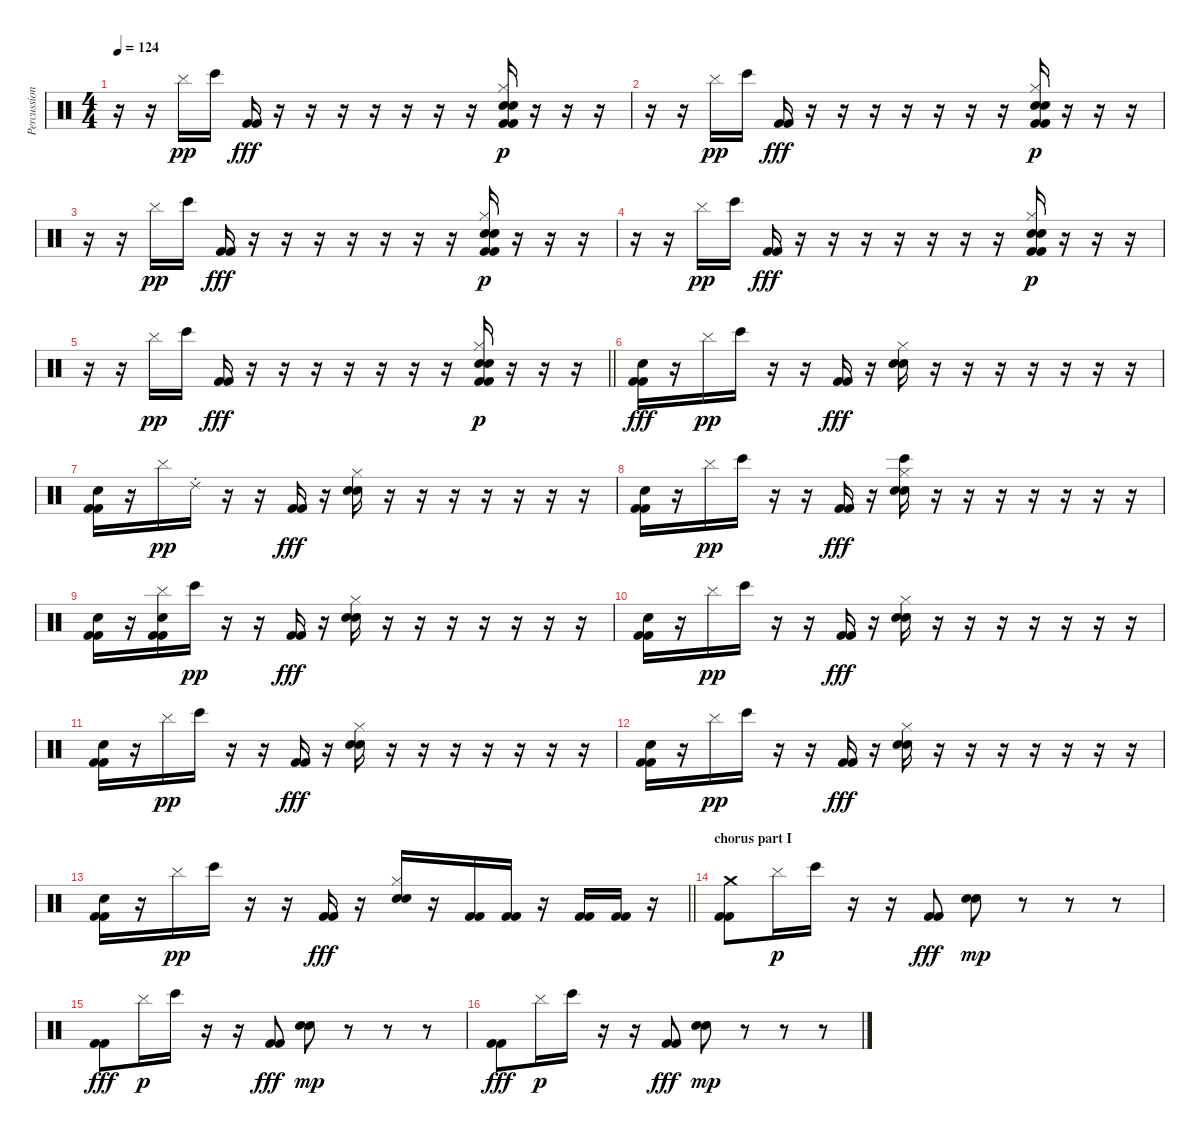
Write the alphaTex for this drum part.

\track ("Percussions" "Percussion") {instrument percussion}
\staff {score}
\articulation defaults
\ts (4 4)
\tempo 124
\clef neutral
\ks c
r.16{dy p} r.16 "Cymbal (hit)".16{dy pp} "Bongo High (hit)".16 ("Kick (hit) 2" "Kick (hit) 2").16{dy fff} r.16 r.16 r.16 r.16 r.16 r.16 r.16 ("Snare (hit) 2" "Hi-Hat (closed)" "Hand Clap (hit)" "Kick (hit) 2" "Kick (hit) 2").16{dy p} r.16 r.16 r.16 |
r.16 r.16 "Cymbal (hit)".16{dy pp} "Bongo High (hit)".16 ("Kick (hit) 2" "Kick (hit) 2").16{dy fff} r.16 r.16 r.16 r.16 r.16 r.16 r.16 ("Snare (hit) 2" "Hi-Hat (closed)" "Hand Clap (hit)" "Kick (hit) 2" "Kick (hit) 2").16{dy p} r.16 r.16 r.16 |
r.16 r.16 "Cymbal (hit)".16{dy pp} "Bongo High (hit)".16 ("Kick (hit) 2" "Kick (hit) 2").16{dy fff} r.16 r.16 r.16 r.16 r.16 r.16 r.16 ("Snare (hit) 2" "Hi-Hat (closed)" "Hand Clap (hit)" "Kick (hit) 2" "Kick (hit) 2").16{dy p} r.16 r.16 r.16 |
r.16 r.16 "Cymbal (hit)".16{dy pp} "Bongo High (hit)".16 ("Kick (hit) 2" "Kick (hit) 2").16{dy fff} r.16 r.16 r.16 r.16 r.16 r.16 r.16 ("Snare (hit) 2" "Hi-Hat (closed)" "Hand Clap (hit)" "Kick (hit) 2" "Kick (hit) 2").16{dy p} r.16 r.16 r.16 |
\barLineRight lightlight
r.16 r.16 "Cymbal (hit)".16{dy pp} "Bongo High (hit)".16 ("Kick (hit) 2" "Kick (hit) 2").16{dy fff} r.16 r.16 r.16 r.16 r.16 r.16 r.16 ("Snare (hit) 2" "Hi-Hat (closed)" "Hand Clap (hit)" "Kick (hit) 2" "Kick (hit) 2").16{dy p} r.16 r.16 r.16 |
\section ("" "")
("Snare (hit) 2" "Kick (hit) 2" "Kick (hit) 2").16{dy fff} r.16 "Cymbal (hit)".16{dy pp} "Bongo High (hit)".16 r.16 r.16 ("Kick (hit) 2" "Kick (hit) 2").16{dy fff} r.16 ("Hi-Hat (closed)" "Snare (hit) 2" "Hand Clap (hit)").16 r.16 r.16 r.16 r.16 r.16 r.16 r.16 |
("Snare (hit) 2" "Kick (hit) 2" "Kick (hit) 2").16 r.16 "Cymbal (hit)".16{dy pp} "Ride (choke) 2".16 r.16 r.16 ("Kick (hit) 2" "Kick (hit) 2").16{dy fff} r.16 ("Hi-Hat (closed)" "Snare (hit) 2" "Hand Clap (hit)").16 r.16 r.16 r.16 r.16 r.16 r.16 r.16 |
("Snare (hit) 2" "Kick (hit) 2" "Kick (hit) 2").16 r.16 "Cymbal (hit)".16{dy pp} "Bongo High (hit)".16 r.16 r.16 ("Kick (hit) 2" "Kick (hit) 2").16{dy fff} r.16 ("Bongo High (hit)" "Hi-Hat (closed)" "Snare (hit) 2" "Hand Clap (hit)").16 r.16 r.16 r.16 r.16 r.16 r.16 r.16 |
("Snare (hit) 2" "Kick (hit) 2" "Kick (hit) 2").16 r.16 ("Snare (hit) 2" "Cymbal (hit)" "Kick (hit) 2" "Kick (hit) 2").16 "Bongo High (hit)".16{dy pp} r.16 r.16 ("Kick (hit) 2" "Kick (hit) 2").16{dy fff} r.16 ("Hi-Hat (closed)" "Snare (hit) 2" "Hand Clap (hit)").16 r.16 r.16 r.16 r.16 r.16 r.16 r.16 |
("Snare (hit) 2" "Kick (hit) 2" "Kick (hit) 2").16 r.16 "Cymbal (hit)".16{dy pp} "Bongo High (hit)".16 r.16 r.16 ("Kick (hit) 2" "Kick (hit) 2").16{dy fff} r.16 ("Hi-Hat (closed)" "Snare (hit) 2" "Hand Clap (hit)").16 r.16 r.16 r.16 r.16 r.16 r.16 r.16 |
("Snare (hit) 2" "Kick (hit) 2" "Kick (hit) 2").16 r.16 "Cymbal (hit)".16{dy pp} "Bongo High (hit)".16 r.16 r.16 ("Kick (hit) 2" "Kick (hit) 2").16{dy fff} r.16 ("Hi-Hat (closed)" "Snare (hit) 2" "Hand Clap (hit)").16 r.16 r.16 r.16 r.16 r.16 r.16 r.16 |
("Snare (hit) 2" "Kick (hit) 2" "Kick (hit) 2").16 r.16 "Cymbal (hit)".16{dy pp} "Bongo High (hit)".16 r.16 r.16 ("Kick (hit) 2" "Kick (hit) 2").16{dy fff} r.16 ("Hi-Hat (closed)" "Snare (hit) 2" "Hand Clap (hit)").16 r.16 r.16 r.16 r.16 r.16 r.16 r.16 |
\barLineRight lightlight
("Snare (hit) 2" "Kick (hit) 2" "Kick (hit) 2").16 r.16 "Cymbal (hit)".16{dy pp} "Bongo High (hit)".16 r.16 r.16 ("Kick (hit) 2" "Kick (hit) 2").16{dy fff} r.16 ("Hi-Hat (closed)" "Snare (hit) 2" "Hand Clap (hit)").16 r.16 ("Kick (hit) 2" "Kick (hit) 2").16 ("Kick (hit) 2" "Kick (hit) 2").16 r.16 ("Kick (hit) 2" "Kick (hit) 2").16 ("Kick (hit) 2" "Kick (hit) 2").16 r.16 |
\section ("" "chorus part I")
("Crash medium (hit)" "Kick (hit) 2" "Kick (hit) 2").8 "Cymbal (hit)".16{dy p} "Bongo High (hit)".16 r.16 r.16 ("Kick (hit) 2" "Kick (hit) 2").8{dy fff} ("Electric Snare (hit)" "Hand Clap (hit)").8{dy mp} r.8 r.8 r.8 |
("Kick (hit) 2" "Kick (hit) 2").8{dy fff} "Cymbal (hit)".16{dy p} "Bongo High (hit)".16 r.16 r.16 ("Kick (hit) 2" "Kick (hit) 2").8{dy fff} ("Electric Snare (hit)" "Hand Clap (hit)").8{dy mp} r.8 r.8 r.8 |
("Kick (hit) 2" "Kick (hit) 2").8{dy fff} "Cymbal (hit)".16{dy p} "Bongo High (hit)".16 r.16 r.16 ("Kick (hit) 2" "Kick (hit) 2").8{dy fff} ("Electric Snare (hit)" "Hand Clap (hit)").8{dy mp} r.8 r.8 r.8
